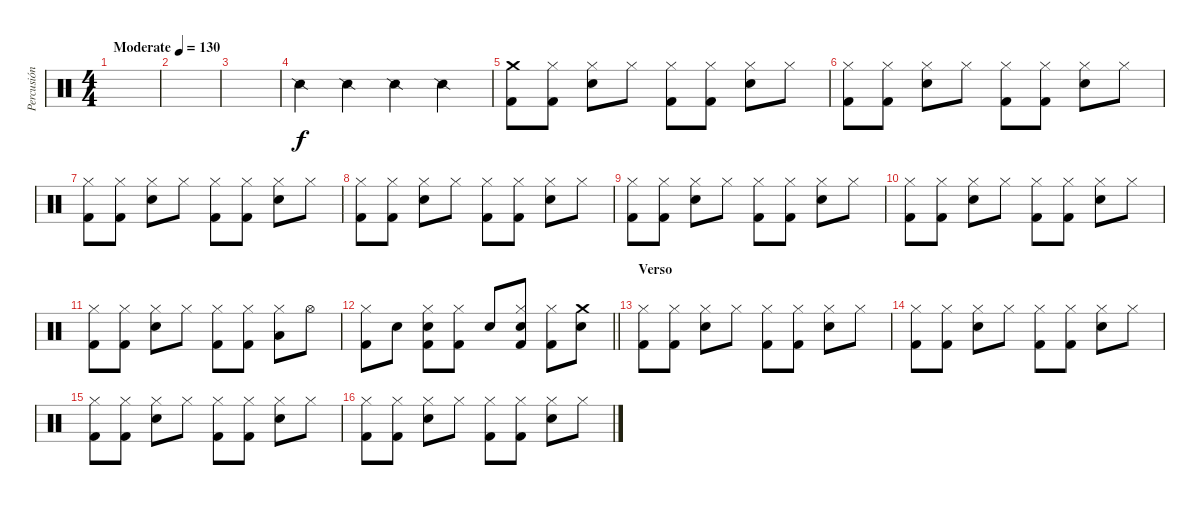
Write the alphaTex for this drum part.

\track ("Percusión" "Percusión") {instrument percussion}
\staff {score}
\articulation defaults
\ts (4 4)
\tempo (130 "Moderate")
\clef neutral
\ks c
|
|
|
"Snare (side stick) 2".4 "Snare (side stick) 2".4 "Snare (side stick) 2".4 "Snare (side stick) 2".4 |
("Crash medium (hit)" "Kick (hit) 2").8 ("Hi-Hat (closed)" "Kick (hit) 2").8 ("Hi-Hat (closed)" "Electric Snare (hit)").8 "Hi-Hat (closed)".8 ("Hi-Hat (closed)" "Kick (hit) 2").8 ("Hi-Hat (closed)" "Kick (hit) 2").8 ("Hi-Hat (closed)" "Electric Snare (hit)").8 "Hi-Hat (closed)".8 |
("Hi-Hat (closed)" "Kick (hit) 2").8 ("Hi-Hat (closed)" "Kick (hit) 2").8 ("Hi-Hat (closed)" "Electric Snare (hit)").8 "Hi-Hat (closed)".8 ("Hi-Hat (closed)" "Kick (hit) 2").8 ("Hi-Hat (closed)" "Kick (hit) 2").8 ("Hi-Hat (closed)" "Electric Snare (hit)").8 "Hi-Hat (closed)".8 |
("Hi-Hat (closed)" "Kick (hit) 2").8 ("Hi-Hat (closed)" "Kick (hit) 2").8 ("Hi-Hat (closed)" "Electric Snare (hit)").8 "Hi-Hat (closed)".8 ("Hi-Hat (closed)" "Kick (hit) 2").8 ("Hi-Hat (closed)" "Kick (hit) 2").8 ("Hi-Hat (closed)" "Electric Snare (hit)").8 "Hi-Hat (closed)".8 |
("Hi-Hat (closed)" "Kick (hit) 2").8 ("Hi-Hat (closed)" "Kick (hit) 2").8 ("Hi-Hat (closed)" "Electric Snare (hit)").8 "Hi-Hat (closed)".8 ("Hi-Hat (closed)" "Kick (hit) 2").8 ("Hi-Hat (closed)" "Kick (hit) 2").8 ("Hi-Hat (closed)" "Electric Snare (hit)").8 "Hi-Hat (closed)".8 |
("Hi-Hat (closed)" "Kick (hit) 2").8 ("Hi-Hat (closed)" "Kick (hit) 2").8 ("Hi-Hat (closed)" "Electric Snare (hit)").8 "Hi-Hat (closed)".8 ("Hi-Hat (closed)" "Kick (hit) 2").8 ("Hi-Hat (closed)" "Kick (hit) 2").8 ("Hi-Hat (closed)" "Electric Snare (hit)").8 "Hi-Hat (closed)".8 |
("Hi-Hat (closed)" "Kick (hit) 2").8 ("Hi-Hat (closed)" "Kick (hit) 2").8 ("Hi-Hat (closed)" "Electric Snare (hit)").8 "Hi-Hat (closed)".8 ("Hi-Hat (closed)" "Kick (hit) 2").8 ("Hi-Hat (closed)" "Kick (hit) 2").8 ("Hi-Hat (closed)" "Electric Snare (hit)").8 "Hi-Hat (closed)".8 |
("Hi-Hat (closed)" "Kick (hit) 2").8 ("Hi-Hat (closed)" "Kick (hit) 2").8 ("Hi-Hat (closed)" "Electric Snare (hit)").8 "Hi-Hat (closed)".8 ("Hi-Hat (closed)" "Kick (hit) 2").8 ("Hi-Hat (closed)" "Kick (hit) 2").8 ("Hi-Hat (closed)" "Low Tom (hit)").8 "Hi-Hat (open)".8 |
\barLineRight lightlight
("Hi-Hat (closed)" "Kick (hit) 2").8 "Electric Snare (hit)".8 ("Hi-Hat (closed)" "Electric Snare (hit)" "Kick (hit) 2").8 ("Hi-Hat (closed)" "Kick (hit) 2").8 "Electric Snare (hit)".8 ("Hi-Hat (closed)" "Electric Snare (hit)" "Kick (hit) 2").8 ("Hi-Hat (closed)" "Kick (hit) 2").8 ("Crash medium (hit)" "Electric Snare (hit)").8 |
\section ("" "Verso")
("Hi-Hat (closed)" "Kick (hit) 2").8 ("Hi-Hat (closed)" "Kick (hit) 2").8 ("Hi-Hat (closed)" "Electric Snare (hit)").8 "Hi-Hat (closed)".8 ("Hi-Hat (closed)" "Kick (hit) 2").8 ("Hi-Hat (closed)" "Kick (hit) 2").8 ("Hi-Hat (closed)" "Electric Snare (hit)").8 "Hi-Hat (closed)".8 |
("Hi-Hat (closed)" "Kick (hit) 2").8 ("Hi-Hat (closed)" "Kick (hit) 2").8 ("Hi-Hat (closed)" "Electric Snare (hit)").8 "Hi-Hat (closed)".8 ("Hi-Hat (closed)" "Kick (hit) 2").8 ("Hi-Hat (closed)" "Kick (hit) 2").8 ("Hi-Hat (closed)" "Electric Snare (hit)").8 "Hi-Hat (closed)".8 |
("Hi-Hat (closed)" "Kick (hit) 2").8 ("Hi-Hat (closed)" "Kick (hit) 2").8 ("Hi-Hat (closed)" "Electric Snare (hit)").8 "Hi-Hat (closed)".8 ("Hi-Hat (closed)" "Kick (hit) 2").8 ("Hi-Hat (closed)" "Kick (hit) 2").8 ("Hi-Hat (closed)" "Electric Snare (hit)").8 "Hi-Hat (closed)".8 |
("Hi-Hat (closed)" "Kick (hit) 2").8 ("Hi-Hat (closed)" "Kick (hit) 2").8 ("Hi-Hat (closed)" "Electric Snare (hit)").8 "Hi-Hat (closed)".8 ("Hi-Hat (closed)" "Kick (hit) 2").8 ("Hi-Hat (closed)" "Kick (hit) 2").8 ("Hi-Hat (closed)" "Electric Snare (hit)").8 "Hi-Hat (closed)".8
